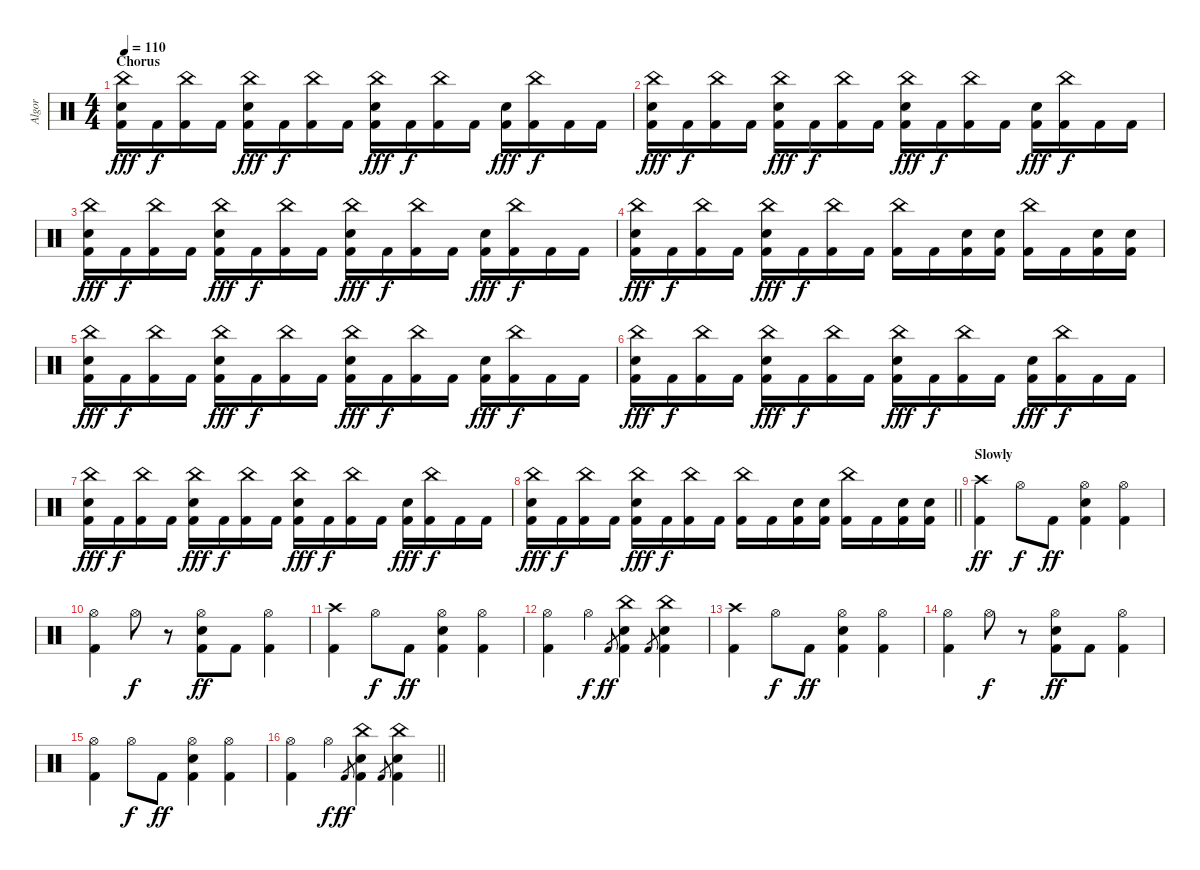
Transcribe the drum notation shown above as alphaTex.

\track ("Algor" "Algor") {instrument percussion}
\staff {score}
\articulation defaults
\ts (4 4)
\section ("" "Chorus")
\tempo 110
\clef neutral
\ks c
("China (hit)" "Snare (hit) 2" "Kick (hit) 2").16{dy fff} "Kick (hit) 2".16{dy f} ("China (hit)" "Kick (hit) 2").16 "Kick (hit) 2".16 ("China (hit)" "Snare (hit) 2" "Kick (hit) 2").16{dy fff} "Kick (hit) 2".16{dy f} ("China (hit)" "Kick (hit) 2").16 "Kick (hit) 2".16 ("China (hit)" "Snare (hit) 2" "Kick (hit) 2").16{dy fff} "Kick (hit) 2".16{dy f} ("China (hit)" "Kick (hit) 2").16 "Kick (hit) 2".16 ("Snare (hit) 2" "Kick (hit) 2").16{dy fff} ("China (hit)" "Kick (hit) 2").16{dy f} "Kick (hit) 2".16 "Kick (hit) 2".16 |
("China (hit)" "Snare (hit) 2" "Kick (hit) 2").16{dy fff} "Kick (hit) 2".16{dy f} ("China (hit)" "Kick (hit) 2").16 "Kick (hit) 2".16 ("China (hit)" "Snare (hit) 2" "Kick (hit) 2").16{dy fff} "Kick (hit) 2".16{dy f} ("China (hit)" "Kick (hit) 2").16 "Kick (hit) 2".16 ("China (hit)" "Snare (hit) 2" "Kick (hit) 2").16{dy fff} "Kick (hit) 2".16{dy f} ("China (hit)" "Kick (hit) 2").16 "Kick (hit) 2".16 ("Snare (hit) 2" "Kick (hit) 2").16{dy fff} ("China (hit)" "Kick (hit) 2").16{dy f} "Kick (hit) 2".16 "Kick (hit) 2".16 |
("China (hit)" "Snare (hit) 2" "Kick (hit) 2").16{dy fff} "Kick (hit) 2".16{dy f} ("China (hit)" "Kick (hit) 2").16 "Kick (hit) 2".16 ("China (hit)" "Snare (hit) 2" "Kick (hit) 2").16{dy fff} "Kick (hit) 2".16{dy f} ("China (hit)" "Kick (hit) 2").16 "Kick (hit) 2".16 ("China (hit)" "Snare (hit) 2" "Kick (hit) 2").16{dy fff} "Kick (hit) 2".16{dy f} ("China (hit)" "Kick (hit) 2").16 "Kick (hit) 2".16 ("Snare (hit) 2" "Kick (hit) 2").16{dy fff} ("China (hit)" "Kick (hit) 2").16{dy f} "Kick (hit) 2".16 "Kick (hit) 2".16 |
("China (hit)" "Snare (hit) 2" "Kick (hit) 2").16{dy fff} "Kick (hit) 2".16{dy f} ("China (hit)" "Kick (hit) 2").16 "Kick (hit) 2".16 ("China (hit)" "Snare (hit) 2" "Kick (hit) 2").16{dy fff} "Kick (hit) 2".16{dy f} ("China (hit)" "Kick (hit) 2").16 "Kick (hit) 2".16 ("China (hit)" "Kick (hit) 2").16 "Kick (hit) 2".16 ("Snare (hit) 2" "Kick (hit) 2").16 ("Snare (hit) 2" "Kick (hit) 2").16 ("China (hit)" "Kick (hit) 2").16 "Kick (hit) 2".16 ("Snare (hit) 2" "Kick (hit) 2").16 ("Snare (hit) 2" "Kick (hit) 2").16 |
("China (hit)" "Snare (hit) 2" "Kick (hit) 2").16{dy fff} "Kick (hit) 2".16{dy f} ("China (hit)" "Kick (hit) 2").16 "Kick (hit) 2".16 ("China (hit)" "Snare (hit) 2" "Kick (hit) 2").16{dy fff} "Kick (hit) 2".16{dy f} ("China (hit)" "Kick (hit) 2").16 "Kick (hit) 2".16 ("China (hit)" "Snare (hit) 2" "Kick (hit) 2").16{dy fff} "Kick (hit) 2".16{dy f} ("China (hit)" "Kick (hit) 2").16 "Kick (hit) 2".16 ("Snare (hit) 2" "Kick (hit) 2").16{dy fff} ("China (hit)" "Kick (hit) 2").16{dy f} "Kick (hit) 2".16 "Kick (hit) 2".16 |
("China (hit)" "Snare (hit) 2" "Kick (hit) 2").16{dy fff} "Kick (hit) 2".16{dy f} ("China (hit)" "Kick (hit) 2").16 "Kick (hit) 2".16 ("China (hit)" "Snare (hit) 2" "Kick (hit) 2").16{dy fff} "Kick (hit) 2".16{dy f} ("China (hit)" "Kick (hit) 2").16 "Kick (hit) 2".16 ("China (hit)" "Snare (hit) 2" "Kick (hit) 2").16{dy fff} "Kick (hit) 2".16{dy f} ("China (hit)" "Kick (hit) 2").16 "Kick (hit) 2".16 ("Snare (hit) 2" "Kick (hit) 2").16{dy fff} ("China (hit)" "Kick (hit) 2").16{dy f} "Kick (hit) 2".16 "Kick (hit) 2".16 |
("China (hit)" "Snare (hit) 2" "Kick (hit) 2").16{dy fff} "Kick (hit) 2".16{dy f} ("China (hit)" "Kick (hit) 2").16 "Kick (hit) 2".16 ("China (hit)" "Snare (hit) 2" "Kick (hit) 2").16{dy fff} "Kick (hit) 2".16{dy f} ("China (hit)" "Kick (hit) 2").16 "Kick (hit) 2".16 ("China (hit)" "Snare (hit) 2" "Kick (hit) 2").16{dy fff} "Kick (hit) 2".16{dy f} ("China (hit)" "Kick (hit) 2").16 "Kick (hit) 2".16 ("Snare (hit) 2" "Kick (hit) 2").16{dy fff} ("China (hit)" "Kick (hit) 2").16{dy f} "Kick (hit) 2".16 "Kick (hit) 2".16 |
\barLineRight lightlight
("China (hit)" "Snare (hit) 2" "Kick (hit) 2").16{dy fff} "Kick (hit) 2".16{dy f} ("China (hit)" "Kick (hit) 2").16 "Kick (hit) 2".16 ("China (hit)" "Snare (hit) 2" "Kick (hit) 2").16{dy fff} "Kick (hit) 2".16{dy f} ("China (hit)" "Kick (hit) 2").16 "Kick (hit) 2".16 ("China (hit)" "Kick (hit) 2").16 "Kick (hit) 2".16 ("Snare (hit) 2" "Kick (hit) 2").16 ("Snare (hit) 2" "Kick (hit) 2").16 ("China (hit)" "Kick (hit) 2").16 "Kick (hit) 2".16 ("Snare (hit) 2" "Kick (hit) 2").16 ("Snare (hit) 2" "Kick (hit) 2").16 |
\section ("" "Slowly")
("Crash high (hit)" "Kick (hit) 2").4{dy ff} "Hi-Hat (open)".8{dy f} "Kick (hit) 2".8{dy ff} ("Hi-Hat (open)" "Snare (hit) 2" "Kick (hit) 2").4 ("Hi-Hat (open)" "Kick (hit) 2").4 |
("Hi-Hat (open)" "Kick (hit) 2").4 "Hi-Hat (open)".8{dy f} r.8 ("Hi-Hat (open)" "Snare (hit) 2" "Kick (hit) 2").8{dy ff} "Kick (hit) 2".8 ("Hi-Hat (open)" "Kick (hit) 2").4 |
("Crash high (hit)" "Kick (hit) 2").4 "Hi-Hat (open)".8{dy f} "Kick (hit) 2".8{dy ff} ("Hi-Hat (open)" "Snare (hit) 2" "Kick (hit) 2").4 ("Hi-Hat (open)" "Kick (hit) 2").4 |
("Hi-Hat (open)" "Kick (hit) 2").4 "Hi-Hat (open)".4{dy f} "Kick (hit) 2".8{gr dy ff} ("China (hit)" "Snare (hit) 2" "Kick (hit) 2").4 "Kick (hit) 2".8{gr} ("China (hit)" "Snare (hit) 2" "Kick (hit) 2").4 |
("Crash high (hit)" "Kick (hit) 2").4 "Hi-Hat (open)".8{dy f} "Kick (hit) 2".8{dy ff} ("Hi-Hat (open)" "Snare (hit) 2" "Kick (hit) 2").4 ("Hi-Hat (open)" "Kick (hit) 2").4 |
("Hi-Hat (open)" "Kick (hit) 2").4 "Hi-Hat (open)".8{dy f} r.8 ("Hi-Hat (open)" "Snare (hit) 2" "Kick (hit) 2").8{dy ff} "Kick (hit) 2".8 ("Hi-Hat (open)" "Kick (hit) 2").4 |
("Hi-Hat (open)" "Kick (hit) 2").4 "Hi-Hat (open)".8{dy f} "Kick (hit) 2".8{dy ff} ("Hi-Hat (open)" "Snare (hit) 2" "Kick (hit) 2").4 ("Hi-Hat (open)" "Kick (hit) 2").4 |
\barLineRight lightlight
("Hi-Hat (open)" "Kick (hit) 2").4 "Hi-Hat (open)".4{dy f} "Kick (hit) 2".8{gr dy ff} ("China (hit)" "Snare (hit) 2" "Kick (hit) 2").4 "Kick (hit) 2".8{gr} ("China (hit)" "Snare (hit) 2" "Kick (hit) 2").4
